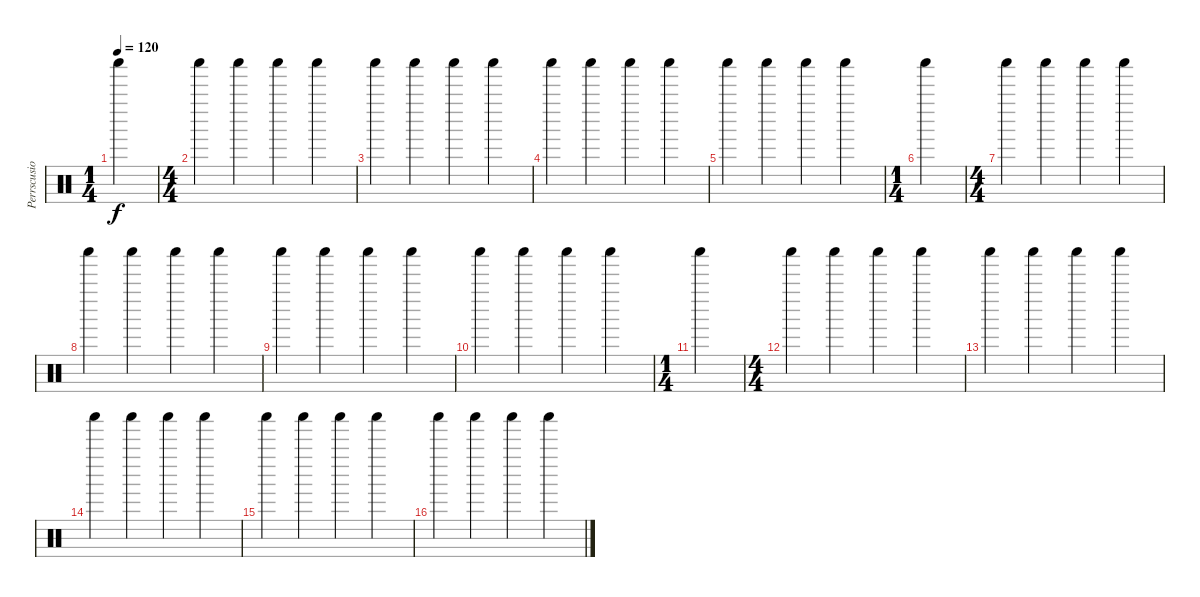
\track ("Perrscusion" "Perrscusio") {instrument percussion}
\staff {score}
\articulation defaults
\ts (1 4)
\tempo 120
\clef neutral
\ks c "Shaker (hit)".4{dy f}
|
\ts (4 4)
"Shaker (hit)".4 "Shaker (hit)".4 "Shaker (hit)".4 "Shaker (hit)".4 |
"Shaker (hit)".4 "Shaker (hit)".4 "Shaker (hit)".4 "Shaker (hit)".4 |
"Shaker (hit)".4 "Shaker (hit)".4 "Shaker (hit)".4 "Shaker (hit)".4 |
"Shaker (hit)".4 "Shaker (hit)".4 "Shaker (hit)".4 "Shaker (hit)".4 |
\ts (1 4)
"Shaker (hit)".4 |
\ts (4 4)
"Shaker (hit)".4 "Shaker (hit)".4 "Shaker (hit)".4 "Shaker (hit)".4 |
"Shaker (hit)".4 "Shaker (hit)".4 "Shaker (hit)".4 "Shaker (hit)".4 |
"Shaker (hit)".4 "Shaker (hit)".4 "Shaker (hit)".4 "Shaker (hit)".4 |
"Shaker (hit)".4 "Shaker (hit)".4 "Shaker (hit)".4 "Shaker (hit)".4 |
\ts (1 4)
"Shaker (hit)".4 |
\ts (4 4)
"Shaker (hit)".4 "Shaker (hit)".4 "Shaker (hit)".4 "Shaker (hit)".4 |
"Shaker (hit)".4 "Shaker (hit)".4 "Shaker (hit)".4 "Shaker (hit)".4 |
"Shaker (hit)".4 "Shaker (hit)".4 "Shaker (hit)".4 "Shaker (hit)".4 |
"Shaker (hit)".4 "Shaker (hit)".4 "Shaker (hit)".4 "Shaker (hit)".4 |
"Shaker (hit)".4 "Shaker (hit)".4 "Shaker (hit)".4 "Shaker (hit)".4
